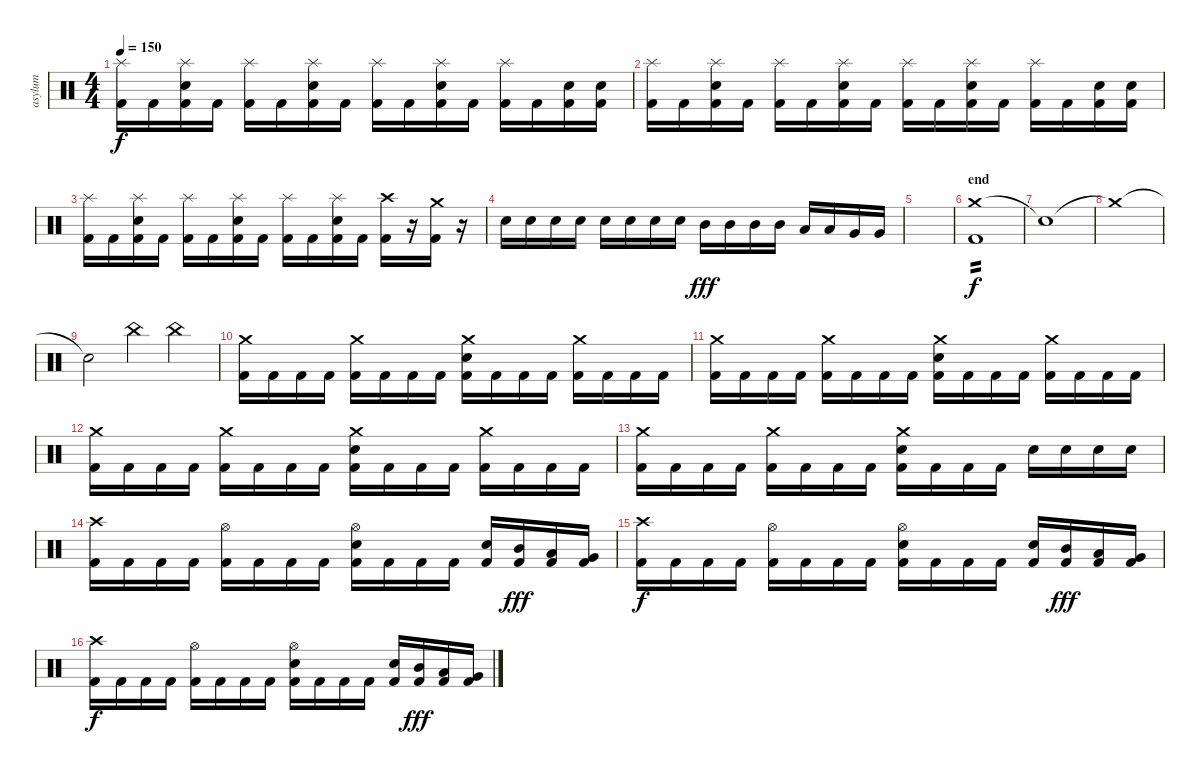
\track ("asylum" "asylum") {instrument percussion}
\staff {score}
\articulation defaults
\ts (4 4)
\tempo 150
\clef neutral
\ks c
("Splash (hit)" "Kick (hit) 2").16{dy f} "Kick (hit) 2".16 ("Splash (hit)" "Electric Snare (hit)" "Kick (hit) 2").16 "Kick (hit) 2".16 ("Splash (hit)" "Kick (hit) 2").16 "Kick (hit) 2".16 ("Splash (hit)" "Electric Snare (hit)" "Kick (hit) 2").16 "Kick (hit) 2".16 ("Splash (hit)" "Kick (hit) 2").16 "Kick (hit) 2".16 ("Splash (hit)" "Electric Snare (hit)" "Kick (hit) 2").16 "Kick (hit) 2".16 ("Splash (hit)" "Kick (hit) 2").16 "Kick (hit) 2".16 ("Electric Snare (hit)" "Kick (hit) 2").16 ("Electric Snare (hit)" "Kick (hit) 2").16 |
("Splash (hit)" "Kick (hit) 2").16 "Kick (hit) 2".16 ("Splash (hit)" "Electric Snare (hit)" "Kick (hit) 2").16 "Kick (hit) 2".16 ("Splash (hit)" "Kick (hit) 2").16 "Kick (hit) 2".16 ("Splash (hit)" "Electric Snare (hit)" "Kick (hit) 2").16 "Kick (hit) 2".16 ("Splash (hit)" "Kick (hit) 2").16 "Kick (hit) 2".16 ("Splash (hit)" "Electric Snare (hit)" "Kick (hit) 2").16 "Kick (hit) 2".16 ("Splash (hit)" "Kick (hit) 2").16 "Kick (hit) 2".16 ("Electric Snare (hit)" "Kick (hit) 2").16 ("Electric Snare (hit)" "Kick (hit) 2").16 |
("Splash (hit)" "Kick (hit) 2").16 "Kick (hit) 2".16 ("Splash (hit)" "Electric Snare (hit)" "Kick (hit) 2").16 "Kick (hit) 2".16 ("Splash (hit)" "Kick (hit) 2").16 "Kick (hit) 2".16 ("Splash (hit)" "Electric Snare (hit)" "Kick (hit) 2").16 "Kick (hit) 2".16 ("Splash (hit)" "Kick (hit) 2").16 "Kick (hit) 2".16 ("Splash (hit)" "Electric Snare (hit)" "Kick (hit) 2").16 "Kick (hit) 2".16 ("Crash high (hit)" "Kick (hit) 2").16 r.16 ("Crash medium (hit)" "Kick (hit) 2").16 r.16 |
"Electric Snare (hit)".16 "Electric Snare (hit)".16 "Electric Snare (hit)".16 "Electric Snare (hit)".16 "Electric Snare (hit)".16 "Electric Snare (hit)".16 "Electric Snare (hit)".16 "Electric Snare (hit)".16 "Mid Tom (hit)".16{dy fff} "Mid Tom (hit)".16 "Mid Tom (hit)".16 "Mid Tom (hit)".16 "Low Tom (hit)".16 "Low Tom (hit)".16 "Very Low Tom (hit)".16 "Very Low Tom (hit)".16 |
|
\section ("" "end")
("Crash medium (hit)" "Kick (hit) 2").1{tp 2 dy f} |
"Snare (hit)"{t}.1 |
"Crash medium (hit)"{t}.1 |
"Snare (hit)"{t}.2 "China (hit)".4 "China (hit)".4 |
("Crash medium (hit)" "Kick (hit) 2").16 "Kick (hit) 2".16 "Kick (hit) 2".16 "Kick (hit) 2".16 ("Crash medium (hit)" "Kick (hit) 2").16 "Kick (hit) 2".16 "Kick (hit) 2".16 "Kick (hit) 2".16 ("Crash medium (hit)" "Electric Snare (hit)" "Kick (hit) 2").16 "Kick (hit) 2".16 "Kick (hit) 2".16 "Kick (hit) 2".16 ("Crash medium (hit)" "Kick (hit) 2").16 "Kick (hit) 2".16 "Kick (hit) 2".16 "Kick (hit) 2".16 |
("Crash medium (hit)" "Kick (hit) 2").16 "Kick (hit) 2".16 "Kick (hit) 2".16 "Kick (hit) 2".16 ("Crash medium (hit)" "Kick (hit) 2").16 "Kick (hit) 2".16 "Kick (hit) 2".16 "Kick (hit) 2".16 ("Crash medium (hit)" "Electric Snare (hit)" "Kick (hit) 2").16 "Kick (hit) 2".16 "Kick (hit) 2".16 "Kick (hit) 2".16 ("Crash medium (hit)" "Kick (hit) 2").16 "Kick (hit) 2".16 "Kick (hit) 2".16 "Kick (hit) 2".16 |
("Crash medium (hit)" "Kick (hit) 2").16 "Kick (hit) 2".16 "Kick (hit) 2".16 "Kick (hit) 2".16 ("Crash medium (hit)" "Kick (hit) 2").16 "Kick (hit) 2".16 "Kick (hit) 2".16 "Kick (hit) 2".16 ("Crash medium (hit)" "Electric Snare (hit)" "Kick (hit) 2").16 "Kick (hit) 2".16 "Kick (hit) 2".16 "Kick (hit) 2".16 ("Crash medium (hit)" "Kick (hit) 2").16 "Kick (hit) 2".16 "Kick (hit) 2".16 "Kick (hit) 2".16 |
("Crash medium (hit)" "Kick (hit) 2").16 "Kick (hit) 2".16 "Kick (hit) 2".16 "Kick (hit) 2".16 ("Crash medium (hit)" "Kick (hit) 2").16 "Kick (hit) 2".16 "Kick (hit) 2".16 "Kick (hit) 2".16 ("Crash medium (hit)" "Electric Snare (hit)" "Kick (hit) 2").16 "Kick (hit) 2".16 "Kick (hit) 2".16 "Kick (hit) 2".16 "Electric Snare (hit)".16 "Electric Snare (hit)".16 "Electric Snare (hit)".16 "Electric Snare (hit)".16 |
("Crash high (hit)" "Kick (hit) 2").16 "Kick (hit) 2".16 "Kick (hit) 2".16 "Kick (hit) 2".16 ("Hi-Hat (open)" "Kick (hit) 2").16 "Kick (hit) 2".16 "Kick (hit) 2".16 "Kick (hit) 2".16 ("Hi-Hat (open)" "Electric Snare (hit)" "Kick (hit) 2").16 "Kick (hit) 2".16 "Kick (hit) 2".16 "Kick (hit) 2".16 ("Electric Snare (hit)" "Kick (hit) 2").16 ("Mid Tom (hit)" "Kick (hit) 2").16{dy fff} ("Low Tom (hit)" "Kick (hit) 2").16 ("Very Low Tom (hit)" "Kick (hit) 2").16 |
("Crash high (hit)" "Kick (hit) 2").16{dy f} "Kick (hit) 2".16 "Kick (hit) 2".16 "Kick (hit) 2".16 ("Hi-Hat (open)" "Kick (hit) 2").16 "Kick (hit) 2".16 "Kick (hit) 2".16 "Kick (hit) 2".16 ("Hi-Hat (open)" "Electric Snare (hit)" "Kick (hit) 2").16 "Kick (hit) 2".16 "Kick (hit) 2".16 "Kick (hit) 2".16 ("Electric Snare (hit)" "Kick (hit) 2").16 ("Mid Tom (hit)" "Kick (hit) 2").16{dy fff} ("Low Tom (hit)" "Kick (hit) 2").16 ("Very Low Tom (hit)" "Kick (hit) 2").16 |
("Crash high (hit)" "Kick (hit) 2").16{dy f} "Kick (hit) 2".16 "Kick (hit) 2".16 "Kick (hit) 2".16 ("Hi-Hat (open)" "Kick (hit) 2").16 "Kick (hit) 2".16 "Kick (hit) 2".16 "Kick (hit) 2".16 ("Hi-Hat (open)" "Electric Snare (hit)" "Kick (hit) 2").16 "Kick (hit) 2".16 "Kick (hit) 2".16 "Kick (hit) 2".16 ("Electric Snare (hit)" "Kick (hit) 2").16 ("Mid Tom (hit)" "Kick (hit) 2").16{dy fff} ("Low Tom (hit)" "Kick (hit) 2").16 ("Very Low Tom (hit)" "Kick (hit) 2").16
